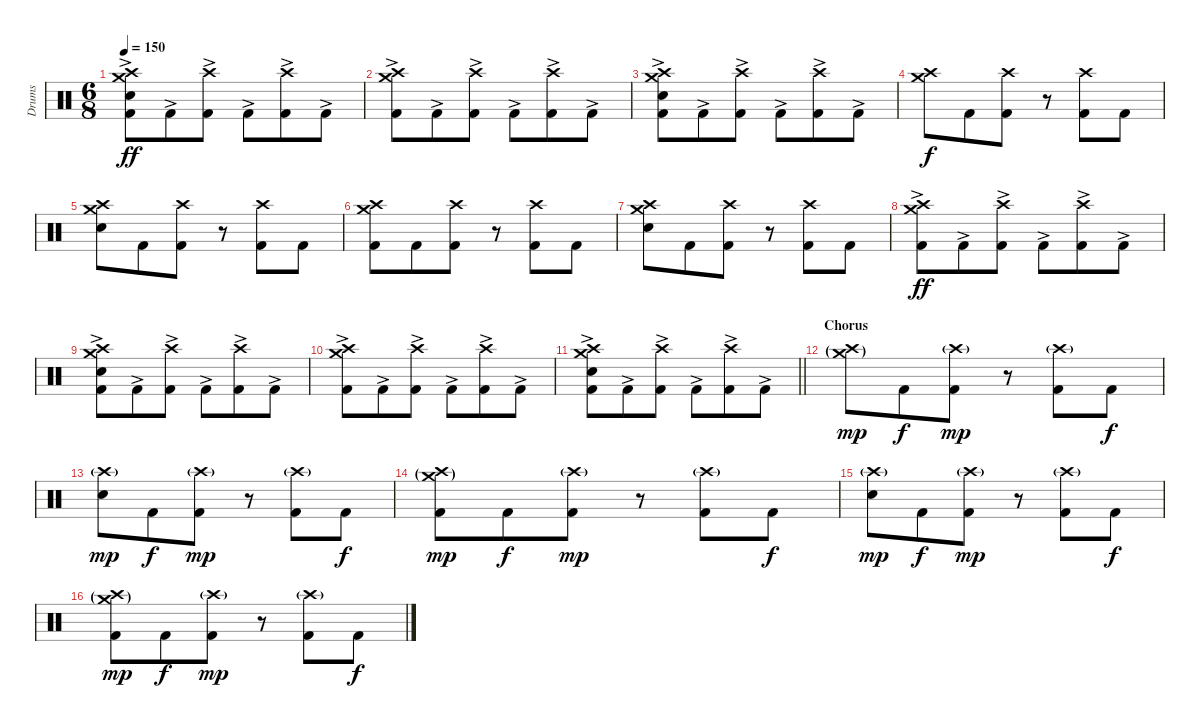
\track ("Drums" "Drums") {mute instrument percussion}
\staff {score}
\articulation defaults
\ts (6 8)
\tempo 150
\clef neutral
\ks c
("Crash medium (hit)" "Crash high (hit)" "Electric Snare (hit)" "Kick (hit) 2"{ac}).8{dy ff} "Kick (hit) 2"{ac}.8 ("Crash high (hit)" "Kick (hit) 2"{ac}).8 "Kick (hit) 2"{ac}.8 ("Crash high (hit)" "Kick (hit) 2"{ac}).8 "Kick (hit) 2"{ac}.8 |
("Crash medium (hit)" "Crash high (hit)" "Kick (hit) 2"{ac}).8 "Kick (hit) 2"{ac}.8 ("Crash high (hit)" "Kick (hit) 2"{ac}).8 "Kick (hit) 2"{ac}.8 ("Crash high (hit)" "Kick (hit) 2"{ac}).8 "Kick (hit) 2"{ac}.8 |
("Crash medium (hit)" "Crash high (hit)" "Electric Snare (hit)" "Kick (hit) 2"{ac}).8 "Kick (hit) 2"{ac}.8 ("Crash high (hit)" "Kick (hit) 2"{ac}).8 "Kick (hit) 2"{ac}.8 ("Crash high (hit)" "Kick (hit) 2"{ac}).8 "Kick (hit) 2"{ac}.8 |
("Crash medium (hit)" "Crash high (hit)").8{dy f} "Kick (hit) 2".8 ("Crash high (hit)" "Kick (hit) 2").8 r.8 ("Crash high (hit)" "Kick (hit) 2").8 "Kick (hit) 2".8 |
("Crash medium (hit)" "Crash high (hit)" "Electric Snare (hit)").8 "Kick (hit) 2".8 ("Crash high (hit)" "Kick (hit) 2").8 r.8 ("Crash high (hit)" "Kick (hit) 2").8 "Kick (hit) 2".8 |
("Crash medium (hit)" "Crash high (hit)" "Kick (hit) 2").8 "Kick (hit) 2".8 ("Crash high (hit)" "Kick (hit) 2").8 r.8 ("Crash high (hit)" "Kick (hit) 2").8 "Kick (hit) 2".8 |
("Crash medium (hit)" "Crash high (hit)" "Electric Snare (hit)").8 "Kick (hit) 2".8 ("Crash high (hit)" "Kick (hit) 2").8 r.8 ("Crash high (hit)" "Kick (hit) 2").8 "Kick (hit) 2".8 |
("Crash medium (hit)" "Crash high (hit)" "Kick (hit) 2"{ac}).8{dy ff} "Kick (hit) 2"{ac}.8 ("Crash high (hit)" "Kick (hit) 2"{ac}).8 "Kick (hit) 2"{ac}.8 ("Crash high (hit)" "Kick (hit) 2"{ac}).8 "Kick (hit) 2"{ac}.8 |
("Crash medium (hit)" "Crash high (hit)" "Electric Snare (hit)" "Kick (hit) 2"{ac}).8 "Kick (hit) 2"{ac}.8 ("Crash high (hit)" "Kick (hit) 2"{ac}).8 "Kick (hit) 2"{ac}.8 ("Crash high (hit)" "Kick (hit) 2"{ac}).8 "Kick (hit) 2"{ac}.8 |
("Crash medium (hit)" "Crash high (hit)" "Kick (hit) 2"{ac}).8 "Kick (hit) 2"{ac}.8 ("Crash high (hit)" "Kick (hit) 2"{ac}).8 "Kick (hit) 2"{ac}.8 ("Crash high (hit)" "Kick (hit) 2"{ac}).8 "Kick (hit) 2"{ac}.8 |
\barLineRight lightlight
("Crash medium (hit)" "Crash high (hit)" "Electric Snare (hit)" "Kick (hit) 2"{ac}).8 "Kick (hit) 2"{ac}.8 ("Crash high (hit)" "Kick (hit) 2"{ac}).8 "Kick (hit) 2"{ac}.8 ("Crash high (hit)" "Kick (hit) 2"{ac}).8 "Kick (hit) 2"{ac}.8 |
\section ("" "Chorus")
("Crash medium (hit)"{g} "Crash high (hit)"{g}).8{dy mp} "Kick (hit) 2".8{dy f} ("Crash high (hit)"{g} "Kick (hit) 2").8{dy mp} r.8 ("Crash high (hit)"{g} "Kick (hit) 2").8 "Kick (hit) 2".8{dy f} |
("Crash high (hit)"{g} "Electric Snare (hit)").8{dy mp} "Kick (hit) 2".8{dy f} ("Crash high (hit)"{g} "Kick (hit) 2").8{dy mp} r.8 ("Crash high (hit)"{g} "Kick (hit) 2").8 "Kick (hit) 2".8{dy f} |
("Crash medium (hit)"{g} "Crash high (hit)"{g} "Kick (hit) 2").8{dy mp} "Kick (hit) 2".8{dy f} ("Crash high (hit)"{g} "Kick (hit) 2").8{dy mp} r.8 ("Crash high (hit)"{g} "Kick (hit) 2").8 "Kick (hit) 2".8{dy f} |
("Crash high (hit)"{g} "Electric Snare (hit)").8{dy mp} "Kick (hit) 2".8{dy f} ("Crash high (hit)"{g} "Kick (hit) 2").8{dy mp} r.8 ("Crash high (hit)"{g} "Kick (hit) 2").8 "Kick (hit) 2".8{dy f} |
("Crash medium (hit)"{g} "Crash high (hit)"{g} "Kick (hit) 2").8{dy mp} "Kick (hit) 2".8{dy f} ("Crash high (hit)"{g} "Kick (hit) 2").8{dy mp} r.8 ("Crash high (hit)"{g} "Kick (hit) 2").8 "Kick (hit) 2".8{dy f}
